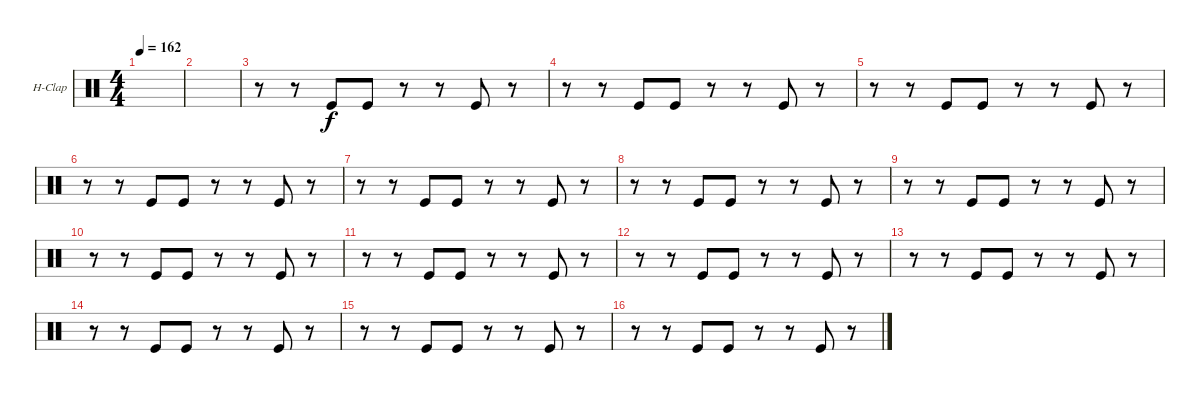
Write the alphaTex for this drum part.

\defaultSystemsLayout 4
\bracketExtendMode groupsimilarinstruments
\firstSystemTrackNameOrientation horizontal
\otherSystemsTrackNameOrientation horizontal
\track ("Hand Clap" "H-Clap") {instrument percussion}
\staff {score}
\articulation defaults
\ts (4 4)
\tempo 162
\clef neutral
\ks c
|
|
r.8 r.8 "Kick (hit)".8 "Kick (hit)".8 r.8 r.8 "Kick (hit)".8 r.8 |
r.8 r.8 "Kick (hit)".8 "Kick (hit)".8 r.8 r.8 "Kick (hit)".8 r.8 |
r.8 r.8 "Kick (hit)".8 "Kick (hit)".8 r.8 r.8 "Kick (hit)".8 r.8 |
r.8 r.8 "Kick (hit)".8 "Kick (hit)".8 r.8 r.8 "Kick (hit)".8 r.8 |
r.8 r.8 "Kick (hit)".8 "Kick (hit)".8 r.8 r.8 "Kick (hit)".8 r.8 |
r.8 r.8 "Kick (hit)".8 "Kick (hit)".8 r.8 r.8 "Kick (hit)".8 r.8 |
r.8 r.8 "Kick (hit)".8 "Kick (hit)".8 r.8 r.8 "Kick (hit)".8 r.8 |
r.8 r.8 "Kick (hit)".8 "Kick (hit)".8 r.8 r.8 "Kick (hit)".8 r.8 |
r.8 r.8 "Kick (hit)".8 "Kick (hit)".8 r.8 r.8 "Kick (hit)".8 r.8 |
r.8 r.8 "Kick (hit)".8 "Kick (hit)".8 r.8 r.8 "Kick (hit)".8 r.8 |
r.8 r.8 "Kick (hit)".8 "Kick (hit)".8 r.8 r.8 "Kick (hit)".8 r.8 |
r.8 r.8 "Kick (hit)".8 "Kick (hit)".8 r.8 r.8 "Kick (hit)".8 r.8 |
r.8 r.8 "Kick (hit)".8 "Kick (hit)".8 r.8 r.8 "Kick (hit)".8 r.8 |
r.8 r.8 "Kick (hit)".8 "Kick (hit)".8 r.8 r.8 "Kick (hit)".8 r.8
